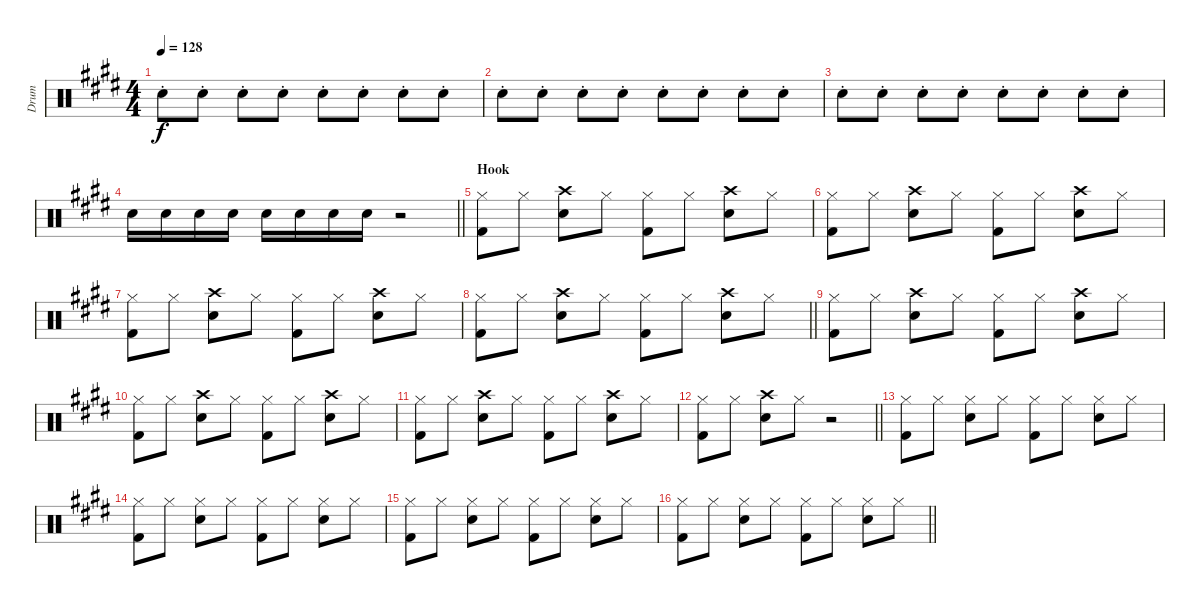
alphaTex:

\track ("Drum" "Drum") {instrument percussion}
\staff {score}
\articulation defaults
\ts (4 4)
\tempo 128
\clef neutral
\ks c#minor "Snare (hit) 2"{st}.8{dy f} "Snare (hit) 2"{st}.8 "Snare (hit) 2"{st}.8 "Snare (hit) 2"{st}.8 "Snare (hit) 2"{st}.8 "Snare (hit) 2"{st}.8 "Snare (hit) 2"{st}.8 "Snare (hit) 2"{st}.8
|
"Snare (hit) 2"{st}.8 "Snare (hit) 2"{st}.8 "Snare (hit) 2"{st}.8 "Snare (hit) 2"{st}.8 "Snare (hit) 2"{st}.8 "Snare (hit) 2"{st}.8 "Snare (hit) 2"{st}.8 "Snare (hit) 2"{st}.8 |
"Snare (hit) 2"{st}.8 "Snare (hit) 2"{st}.8 "Snare (hit) 2"{st}.8 "Snare (hit) 2"{st}.8 "Snare (hit) 2"{st}.8 "Snare (hit) 2"{st}.8 "Snare (hit) 2"{st}.8 "Snare (hit) 2"{st}.8 |
\barLineRight lightlight "Snare (hit) 2".16 "Snare (hit) 2".16 "Snare (hit) 2".16 "Snare (hit) 2".16 "Snare (hit) 2".16 "Snare (hit) 2".16 "Snare (hit) 2".16 "Snare (hit) 2".16
r.2 |
\section ("" "Hook")
("Hi-Hat (closed)" "Kick (hit) 2").8 "Hi-Hat (closed)".8 ("Crash high (hit)" "Snare (hit) 2").8 "Hi-Hat (closed)".8 ("Hi-Hat (closed)" "Kick (hit) 2").8 "Hi-Hat (closed)".8 ("Crash high (hit)" "Snare (hit) 2").8 "Hi-Hat (closed)".8 |
("Hi-Hat (closed)" "Kick (hit) 2").8 "Hi-Hat (closed)".8 ("Crash high (hit)" "Snare (hit) 2").8 "Hi-Hat (closed)".8 ("Hi-Hat (closed)" "Kick (hit) 2").8 "Hi-Hat (closed)".8 ("Crash high (hit)" "Snare (hit) 2").8 "Hi-Hat (closed)".8 |
("Hi-Hat (closed)" "Kick (hit) 2").8 "Hi-Hat (closed)".8 ("Crash high (hit)" "Snare (hit) 2").8 "Hi-Hat (closed)".8 ("Hi-Hat (closed)" "Kick (hit) 2").8 "Hi-Hat (closed)".8 ("Crash high (hit)" "Snare (hit) 2").8 "Hi-Hat (closed)".8 |
\barLineRight lightlight
("Hi-Hat (closed)" "Kick (hit) 2").8 "Hi-Hat (closed)".8 ("Crash high (hit)" "Snare (hit) 2").8 "Hi-Hat (closed)".8 ("Hi-Hat (closed)" "Kick (hit) 2").8 "Hi-Hat (closed)".8 ("Crash high (hit)" "Snare (hit) 2").8 "Hi-Hat (closed)".8 |
("Hi-Hat (closed)" "Kick (hit) 2").8 "Hi-Hat (closed)".8 ("Crash high (hit)" "Snare (hit) 2").8 "Hi-Hat (closed)".8 ("Hi-Hat (closed)" "Kick (hit) 2").8 "Hi-Hat (closed)".8 ("Crash high (hit)" "Snare (hit) 2").8 "Hi-Hat (closed)".8 |
("Hi-Hat (closed)" "Kick (hit) 2").8 "Hi-Hat (closed)".8 ("Crash high (hit)" "Snare (hit) 2").8 "Hi-Hat (closed)".8 ("Hi-Hat (closed)" "Kick (hit) 2").8 "Hi-Hat (closed)".8 ("Crash high (hit)" "Snare (hit) 2").8 "Hi-Hat (closed)".8 |
("Hi-Hat (closed)" "Kick (hit) 2").8 "Hi-Hat (closed)".8 ("Crash high (hit)" "Snare (hit) 2").8 "Hi-Hat (closed)".8 ("Hi-Hat (closed)" "Kick (hit) 2").8 "Hi-Hat (closed)".8 ("Crash high (hit)" "Snare (hit) 2").8 "Hi-Hat (closed)".8 |
\barLineRight lightlight
("Hi-Hat (closed)" "Kick (hit) 2").8 "Hi-Hat (closed)".8 ("Crash high (hit)" "Snare (hit) 2").8 "Hi-Hat (closed)".8 r.2 |
("Hi-Hat (closed)" "Kick (hit) 2").8 "Hi-Hat (closed)".8 ("Hi-Hat (closed)" "Snare (hit) 2").8 "Hi-Hat (closed)".8 ("Hi-Hat (closed)" "Kick (hit) 2").8 "Hi-Hat (closed)".8 ("Hi-Hat (closed)" "Snare (hit) 2").8 "Hi-Hat (closed)".8 |
("Hi-Hat (closed)" "Kick (hit) 2").8 "Hi-Hat (closed)".8 ("Hi-Hat (closed)" "Snare (hit) 2").8 "Hi-Hat (closed)".8 ("Hi-Hat (closed)" "Kick (hit) 2").8 "Hi-Hat (closed)".8 ("Hi-Hat (closed)" "Snare (hit) 2").8 "Hi-Hat (closed)".8 |
("Hi-Hat (closed)" "Kick (hit) 2").8 "Hi-Hat (closed)".8 ("Hi-Hat (closed)" "Snare (hit) 2").8 "Hi-Hat (closed)".8 ("Hi-Hat (closed)" "Kick (hit) 2").8 "Hi-Hat (closed)".8 ("Hi-Hat (closed)" "Snare (hit) 2").8 "Hi-Hat (closed)".8 |
\barLineRight lightlight
("Hi-Hat (closed)" "Kick (hit) 2").8 "Hi-Hat (closed)".8 ("Hi-Hat (closed)" "Snare (hit) 2").8 "Hi-Hat (closed)".8 ("Hi-Hat (closed)" "Kick (hit) 2").8 "Hi-Hat (closed)".8 ("Hi-Hat (closed)" "Snare (hit) 2").8 "Hi-Hat (closed)".8
